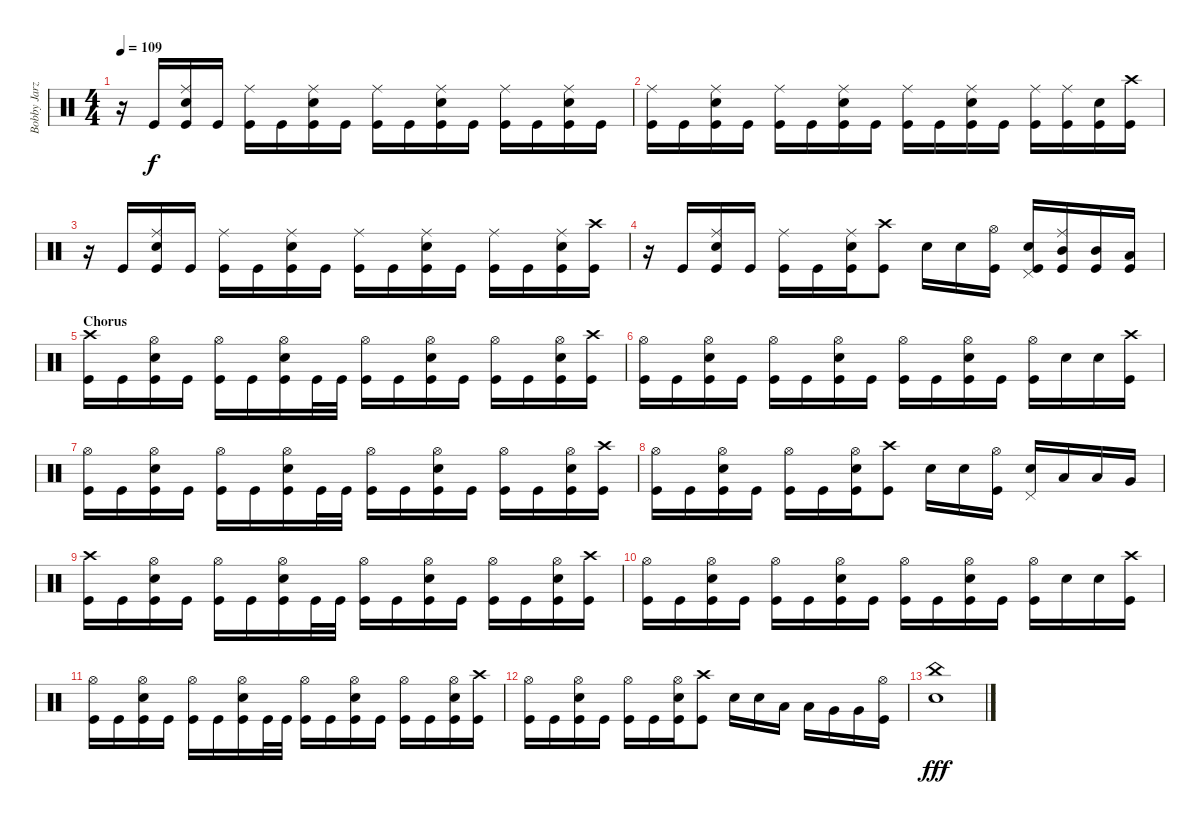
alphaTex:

\track ("Bobby Jarzombek" "Bobby Jarz") {instrument percussion}
\staff {score}
\articulation defaults
\ts (4 4)
\tempo 109
\clef neutral
\ks c
r.16{dy f} "Kick (hit)".16 ("Ride (middle)" "Electric Snare (hit)" "Kick (hit)").16 "Kick (hit)".16 ("Ride (middle)" "Kick (hit)").16 "Kick (hit)".16 ("Ride (middle)" "Electric Snare (hit)" "Kick (hit)").16 "Kick (hit)".16 ("Ride (middle)" "Kick (hit)").16 "Kick (hit)".16 ("Ride (middle)" "Electric Snare (hit)" "Kick (hit)").16 "Kick (hit)".16 ("Ride (middle)" "Kick (hit)").16 "Kick (hit)".16 ("Ride (middle)" "Electric Snare (hit)" "Kick (hit)").16 "Kick (hit)".16 |
("Ride (middle)" "Kick (hit)").16 "Kick (hit)".16 ("Ride (middle)" "Electric Snare (hit)" "Kick (hit)").16 "Kick (hit)".16 ("Ride (middle)" "Kick (hit)").16 "Kick (hit)".16 ("Ride (middle)" "Electric Snare (hit)" "Kick (hit)").16 "Kick (hit)".16 ("Ride (middle)" "Kick (hit)").16 "Kick (hit)".16 ("Ride (middle)" "Electric Snare (hit)" "Kick (hit)").16 "Kick (hit)".16 ("Ride (middle)" "Kick (hit)").16 ("Ride (middle)" "Kick (hit)").16 ("Electric Snare (hit)" "Kick (hit)").16 ("Crash high (hit)" "Kick (hit)").16 |
r.16 "Kick (hit)".16 ("Ride (middle)" "Electric Snare (hit)" "Kick (hit)").16 "Kick (hit)".16 ("Ride (middle)" "Kick (hit)").16 "Kick (hit)".16 ("Ride (middle)" "Electric Snare (hit)" "Kick (hit)").16 "Kick (hit)".16 ("Ride (middle)" "Kick (hit)").16 "Kick (hit)".16 ("Ride (middle)" "Electric Snare (hit)" "Kick (hit)").16 "Kick (hit)".16 ("Ride (middle)" "Kick (hit)").16 "Kick (hit)".16 ("Ride (middle)" "Electric Snare (hit)" "Kick (hit)").16 ("Crash high (hit)" "Kick (hit)").16 |
r.16 "Kick (hit)".16 ("Ride (middle)" "Electric Snare (hit)" "Kick (hit)").16 "Kick (hit)".16 ("Ride (middle)" "Kick (hit)").16 "Kick (hit)".16 ("Ride (middle)" "Electric Snare (hit)" "Kick (hit)").16 ("Crash high (hit)" "Kick (hit)").8 "Electric Snare (hit)".16 "Electric Snare (hit)".16 ("Hi-Hat (open)" "Kick (hit)").16 ("Electric Snare (hit)" "Pedal Hi-Hat (hit)" "Kick (hit)").16 ("Ride (middle)" "Mid Tom (hit)" "Kick (hit)").16 ("Mid Tom (hit)" "Kick (hit)").16 ("Low Tom (hit)" "Kick (hit)").16 |
\section ("" "Chorus")
("Crash high (hit)" "Kick (hit)").16 "Kick (hit)".16 ("Hi-Hat (open)" "Electric Snare (hit)" "Kick (hit)").16 "Kick (hit)".16 ("Hi-Hat (open)" "Kick (hit)").16 "Kick (hit)".16 ("Hi-Hat (open)" "Electric Snare (hit)" "Kick (hit)").16 "Kick (hit)".32 "Kick (hit)".32 ("Hi-Hat (open)" "Kick (hit)").16 "Kick (hit)".16 ("Hi-Hat (open)" "Electric Snare (hit)" "Kick (hit)").16 "Kick (hit)".16 ("Hi-Hat (open)" "Kick (hit)").16 "Kick (hit)".16 ("Hi-Hat (open)" "Electric Snare (hit)" "Kick (hit)").16 ("Crash high (hit)" "Kick (hit)").16 |
("Hi-Hat (open)" "Kick (hit)").16 "Kick (hit)".16 ("Hi-Hat (open)" "Electric Snare (hit)" "Kick (hit)").16 "Kick (hit)".16 ("Hi-Hat (open)" "Kick (hit)").16 "Kick (hit)".16 ("Hi-Hat (open)" "Electric Snare (hit)" "Kick (hit)").16 "Kick (hit)".16 ("Hi-Hat (open)" "Kick (hit)").16 "Kick (hit)".16 ("Hi-Hat (open)" "Electric Snare (hit)" "Kick (hit)").16 "Kick (hit)".16 ("Hi-Hat (open)" "Kick (hit)").16 "Electric Snare (hit)".16 "Electric Snare (hit)".16 ("Crash high (hit)" "Kick (hit)").16 |
("Hi-Hat (open)" "Kick (hit)").16 "Kick (hit)".16 ("Hi-Hat (open)" "Electric Snare (hit)" "Kick (hit)").16 "Kick (hit)".16 ("Hi-Hat (open)" "Kick (hit)").16 "Kick (hit)".16 ("Hi-Hat (open)" "Electric Snare (hit)" "Kick (hit)").16 "Kick (hit)".32 "Kick (hit)".32 ("Hi-Hat (open)" "Kick (hit)").16 "Kick (hit)".16 ("Hi-Hat (open)" "Electric Snare (hit)" "Kick (hit)").16 "Kick (hit)".16 ("Hi-Hat (open)" "Kick (hit)").16 "Kick (hit)".16 ("Hi-Hat (open)" "Electric Snare (hit)" "Kick (hit)").16 ("Crash high (hit)" "Kick (hit)").16 |
("Hi-Hat (open)" "Kick (hit)").16 "Kick (hit)".16 ("Hi-Hat (open)" "Electric Snare (hit)" "Kick (hit)").16 "Kick (hit)".16 ("Hi-Hat (open)" "Kick (hit)").16 "Kick (hit)".16 ("Hi-Hat (open)" "Electric Snare (hit)" "Kick (hit)").16 ("Crash high (hit)" "Kick (hit)").8 "Electric Snare (hit)".16 "Electric Snare (hit)".16 ("Hi-Hat (open)" "Kick (hit)").16 ("Electric Snare (hit)" "Pedal Hi-Hat (hit)").16 "Low Tom (hit)".16 "Low Tom (hit)".16 "Very Low Tom (hit)".16 |
("Crash high (hit)" "Kick (hit)").16 "Kick (hit)".16 ("Hi-Hat (open)" "Electric Snare (hit)" "Kick (hit)").16 "Kick (hit)".16 ("Hi-Hat (open)" "Kick (hit)").16 "Kick (hit)".16 ("Hi-Hat (open)" "Electric Snare (hit)" "Kick (hit)").16 "Kick (hit)".32 "Kick (hit)".32 ("Hi-Hat (open)" "Kick (hit)").16 "Kick (hit)".16 ("Hi-Hat (open)" "Electric Snare (hit)" "Kick (hit)").16 "Kick (hit)".16 ("Hi-Hat (open)" "Kick (hit)").16 "Kick (hit)".16 ("Hi-Hat (open)" "Electric Snare (hit)" "Kick (hit)").16 ("Crash high (hit)" "Kick (hit)").16 |
("Hi-Hat (open)" "Kick (hit)").16 "Kick (hit)".16 ("Hi-Hat (open)" "Electric Snare (hit)" "Kick (hit)").16 "Kick (hit)".16 ("Hi-Hat (open)" "Kick (hit)").16 "Kick (hit)".16 ("Hi-Hat (open)" "Electric Snare (hit)" "Kick (hit)").16 "Kick (hit)".16 ("Hi-Hat (open)" "Kick (hit)").16 "Kick (hit)".16 ("Hi-Hat (open)" "Electric Snare (hit)" "Kick (hit)").16 "Kick (hit)".16 ("Hi-Hat (open)" "Kick (hit)").16 "Electric Snare (hit)".16 "Electric Snare (hit)".16 ("Crash high (hit)" "Kick (hit)").16 |
("Hi-Hat (open)" "Kick (hit)").16 "Kick (hit)".16 ("Hi-Hat (open)" "Electric Snare (hit)" "Kick (hit)").16 "Kick (hit)".16 ("Hi-Hat (open)" "Kick (hit)").16 "Kick (hit)".16 ("Hi-Hat (open)" "Electric Snare (hit)" "Kick (hit)").16 "Kick (hit)".32 "Kick (hit)".32 ("Hi-Hat (open)" "Kick (hit)").16 "Kick (hit)".16 ("Hi-Hat (open)" "Electric Snare (hit)" "Kick (hit)").16 "Kick (hit)".16 ("Hi-Hat (open)" "Kick (hit)").16 "Kick (hit)".16 ("Hi-Hat (open)" "Electric Snare (hit)" "Kick (hit)").16 ("Crash high (hit)" "Kick (hit)").16 |
("Hi-Hat (open)" "Kick (hit)").16 "Kick (hit)".16 ("Hi-Hat (open)" "Electric Snare (hit)" "Kick (hit)").16 "Kick (hit)".16 ("Hi-Hat (open)" "Kick (hit)").16 "Kick (hit)".16 ("Hi-Hat (open)" "Electric Snare (hit)" "Kick (hit)").16 ("Crash high (hit)" "Kick (hit)").8 "Electric Snare (hit)".16 "Electric Snare (hit)".16 "Low Tom (hit)".16 "Low Tom (hit)".16 "Very Low Tom (hit)".16 "Very Low Tom (hit)".16 ("Hi-Hat (open)" "Kick (hit)").16 |
("China (hit)" "Electric Snare (hit)").1{dy fff}
